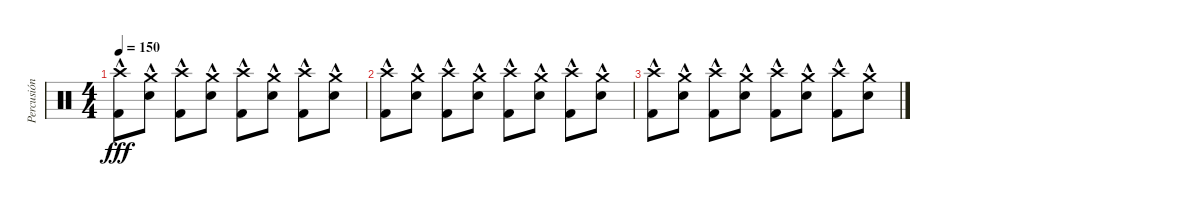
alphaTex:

\track ("Percusión" "Percusión") {instrument percussion}
\staff {score}
\articulation defaults
\ts (4 4)
\tempo 150
\clef neutral
\ks c
("Kick (hit) 2"{hac} "Crash high (hit)").8{dy fff} ("Snare (hit) 2"{hac} "Crash medium (hit)").8 ("Kick (hit) 2"{hac} "Crash high (hit)").8 ("Snare (hit) 2"{hac} "Crash medium (hit)").8 ("Kick (hit) 2"{hac} "Crash high (hit)").8 ("Snare (hit) 2"{hac} "Crash medium (hit)").8 ("Kick (hit) 2"{hac} "Crash high (hit)").8 ("Snare (hit) 2"{hac} "Crash medium (hit)").8 |
("Kick (hit) 2"{hac} "Crash high (hit)").8 ("Snare (hit) 2"{hac} "Crash medium (hit)").8 ("Kick (hit) 2"{hac} "Crash high (hit)").8 ("Snare (hit) 2"{hac} "Crash medium (hit)").8 ("Kick (hit) 2"{hac} "Crash high (hit)").8 ("Snare (hit) 2"{hac} "Crash medium (hit)").8 ("Kick (hit) 2"{hac} "Crash high (hit)").8 ("Snare (hit) 2"{hac} "Crash medium (hit)").8 |
("Kick (hit) 2"{hac} "Crash high (hit)").8 ("Snare (hit) 2"{hac} "Crash medium (hit)").8 ("Kick (hit) 2"{hac} "Crash high (hit)").8 ("Snare (hit) 2"{hac} "Crash medium (hit)").8 ("Kick (hit) 2"{hac} "Crash high (hit)").8 ("Snare (hit) 2"{hac} "Crash medium (hit)").8 ("Kick (hit) 2"{hac} "Crash high (hit)").8 ("Snare (hit) 2"{hac} "Crash medium (hit)").8
